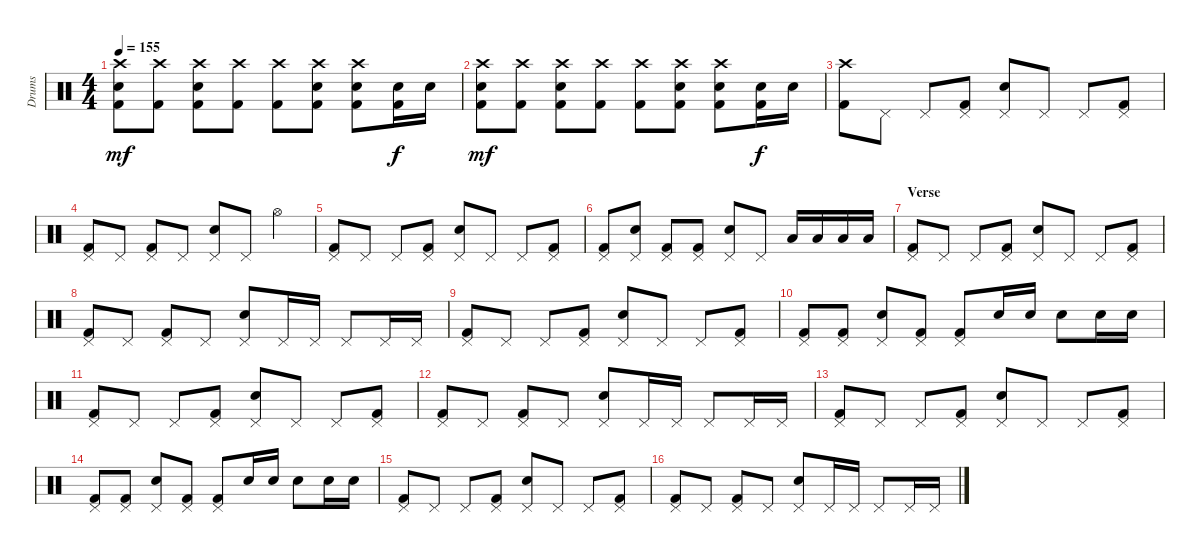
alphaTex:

\track ("Drums" "Drums") {instrument percussion}
\staff {score}
\articulation defaults
\ts (4 4)
\tempo 155
\clef neutral
\ks c
("Crash high (hit)" "Snare (hit) 2" "Kick (hit) 2").8{dy mf} ("Crash high (hit)" "Kick (hit) 2").8 ("Crash high (hit)" "Snare (hit) 2" "Kick (hit) 2").8 ("Crash high (hit)" "Kick (hit) 2").8 ("Crash high (hit)" "Kick (hit) 2").8 ("Crash high (hit)" "Snare (hit) 2" "Kick (hit) 2").8 ("Crash high (hit)" "Snare (hit) 2" "Kick (hit) 2").8 ("Snare (hit) 2" "Kick (hit) 2").16{dy f} "Snare (hit) 2".16 |
("Crash high (hit)" "Snare (hit) 2" "Kick (hit) 2").8{dy mf} ("Crash high (hit)" "Kick (hit) 2").8 ("Crash high (hit)" "Snare (hit) 2" "Kick (hit) 2").8 ("Crash high (hit)" "Kick (hit) 2").8 ("Crash high (hit)" "Kick (hit) 2").8 ("Crash high (hit)" "Snare (hit) 2" "Kick (hit) 2").8 ("Crash high (hit)" "Snare (hit) 2" "Kick (hit) 2").8 ("Snare (hit) 2" "Kick (hit) 2").16{dy f} "Snare (hit) 2".16 |
("Crash high (hit)" "Kick (hit) 2").8 "Pedal Hi-Hat (hit)".8 "Pedal Hi-Hat (hit)".8 ("Pedal Hi-Hat (hit)" "Kick (hit) 2").8 ("Pedal Hi-Hat (hit)" "Snare (hit) 2").8 "Pedal Hi-Hat (hit)".8 "Pedal Hi-Hat (hit)".8 ("Pedal Hi-Hat (hit)" "Kick (hit) 2").8 |
("Pedal Hi-Hat (hit)" "Kick (hit) 2").8 "Pedal Hi-Hat (hit)".8 ("Pedal Hi-Hat (hit)" "Kick (hit) 2").8 "Pedal Hi-Hat (hit)".8 ("Pedal Hi-Hat (hit)" "Snare (hit) 2").8 "Pedal Hi-Hat (hit)".8 "Hi-Hat (open)".4 |
("Pedal Hi-Hat (hit)" "Kick (hit) 2").8 "Pedal Hi-Hat (hit)".8 "Pedal Hi-Hat (hit)".8 ("Pedal Hi-Hat (hit)" "Kick (hit) 2").8 ("Pedal Hi-Hat (hit)" "Snare (hit) 2").8 "Pedal Hi-Hat (hit)".8 "Pedal Hi-Hat (hit)".8 ("Pedal Hi-Hat (hit)" "Kick (hit) 2").8 |
("Pedal Hi-Hat (hit)" "Kick (hit) 2").8 ("Pedal Hi-Hat (hit)" "Snare (hit) 2").8 ("Pedal Hi-Hat (hit)" "Kick (hit) 2").8 ("Pedal Hi-Hat (hit)" "Kick (hit) 2").8 ("Pedal Hi-Hat (hit)" "Snare (hit) 2").8 "Pedal Hi-Hat (hit)".8 "Low Floor Tom (hit)".16 "Low Floor Tom (hit)".16 "Low Floor Tom (hit)".16 "Low Floor Tom (hit)".16 |
\section ("" "Verse")
("Pedal Hi-Hat (hit)" "Kick (hit) 2").8 "Pedal Hi-Hat (hit)".8 "Pedal Hi-Hat (hit)".8 ("Pedal Hi-Hat (hit)" "Kick (hit) 2").8 ("Pedal Hi-Hat (hit)" "Snare (hit) 2").8 "Pedal Hi-Hat (hit)".8 "Pedal Hi-Hat (hit)".8 ("Pedal Hi-Hat (hit)" "Kick (hit) 2").8 |
("Pedal Hi-Hat (hit)" "Kick (hit) 2").8 "Pedal Hi-Hat (hit)".8 ("Pedal Hi-Hat (hit)" "Kick (hit) 2").8 "Pedal Hi-Hat (hit)".8 ("Pedal Hi-Hat (hit)" "Snare (hit) 2").8 "Pedal Hi-Hat (hit)".16 "Pedal Hi-Hat (hit)".16 "Pedal Hi-Hat (hit)".8 "Pedal Hi-Hat (hit)".16 "Pedal Hi-Hat (hit)".16 |
("Pedal Hi-Hat (hit)" "Kick (hit) 2").8 "Pedal Hi-Hat (hit)".8 "Pedal Hi-Hat (hit)".8 ("Pedal Hi-Hat (hit)" "Kick (hit) 2").8 ("Pedal Hi-Hat (hit)" "Snare (hit) 2").8 "Pedal Hi-Hat (hit)".8 "Pedal Hi-Hat (hit)".8 ("Pedal Hi-Hat (hit)" "Kick (hit) 2").8 |
("Pedal Hi-Hat (hit)" "Kick (hit) 2").8 ("Pedal Hi-Hat (hit)" "Kick (hit) 2").8 ("Pedal Hi-Hat (hit)" "Snare (hit) 2").8 ("Pedal Hi-Hat (hit)" "Kick (hit) 2").8 ("Pedal Hi-Hat (hit)" "Kick (hit) 2").8 "Snare (hit) 2".16 "Snare (hit) 2".16 "Snare (hit) 2".8 "Snare (hit) 2".16 "Snare (hit) 2".16 |
("Pedal Hi-Hat (hit)" "Kick (hit) 2").8 "Pedal Hi-Hat (hit)".8 "Pedal Hi-Hat (hit)".8 ("Pedal Hi-Hat (hit)" "Kick (hit) 2").8 ("Pedal Hi-Hat (hit)" "Snare (hit) 2").8 "Pedal Hi-Hat (hit)".8 "Pedal Hi-Hat (hit)".8 ("Pedal Hi-Hat (hit)" "Kick (hit) 2").8 |
("Pedal Hi-Hat (hit)" "Kick (hit) 2").8 "Pedal Hi-Hat (hit)".8 ("Pedal Hi-Hat (hit)" "Kick (hit) 2").8 "Pedal Hi-Hat (hit)".8 ("Pedal Hi-Hat (hit)" "Snare (hit) 2").8 "Pedal Hi-Hat (hit)".16 "Pedal Hi-Hat (hit)".16 "Pedal Hi-Hat (hit)".8 "Pedal Hi-Hat (hit)".16 "Pedal Hi-Hat (hit)".16 |
("Pedal Hi-Hat (hit)" "Kick (hit) 2").8 "Pedal Hi-Hat (hit)".8 "Pedal Hi-Hat (hit)".8 ("Pedal Hi-Hat (hit)" "Kick (hit) 2").8 ("Pedal Hi-Hat (hit)" "Snare (hit) 2").8 "Pedal Hi-Hat (hit)".8 "Pedal Hi-Hat (hit)".8 ("Pedal Hi-Hat (hit)" "Kick (hit) 2").8 |
("Pedal Hi-Hat (hit)" "Kick (hit) 2").8 ("Pedal Hi-Hat (hit)" "Kick (hit) 2").8 ("Pedal Hi-Hat (hit)" "Snare (hit) 2").8 ("Pedal Hi-Hat (hit)" "Kick (hit) 2").8 ("Pedal Hi-Hat (hit)" "Kick (hit) 2").8 "Snare (hit) 2".16 "Snare (hit) 2".16 "Snare (hit) 2".8 "Snare (hit) 2".16 "Snare (hit) 2".16 |
("Pedal Hi-Hat (hit)" "Kick (hit) 2").8 "Pedal Hi-Hat (hit)".8 "Pedal Hi-Hat (hit)".8 ("Pedal Hi-Hat (hit)" "Kick (hit) 2").8 ("Pedal Hi-Hat (hit)" "Snare (hit) 2").8 "Pedal Hi-Hat (hit)".8 "Pedal Hi-Hat (hit)".8 ("Pedal Hi-Hat (hit)" "Kick (hit) 2").8 |
("Pedal Hi-Hat (hit)" "Kick (hit) 2").8 "Pedal Hi-Hat (hit)".8 ("Pedal Hi-Hat (hit)" "Kick (hit) 2").8 "Pedal Hi-Hat (hit)".8 ("Pedal Hi-Hat (hit)" "Snare (hit) 2").8 "Pedal Hi-Hat (hit)".16 "Pedal Hi-Hat (hit)".16 "Pedal Hi-Hat (hit)".8 "Pedal Hi-Hat (hit)".16 "Pedal Hi-Hat (hit)".16
